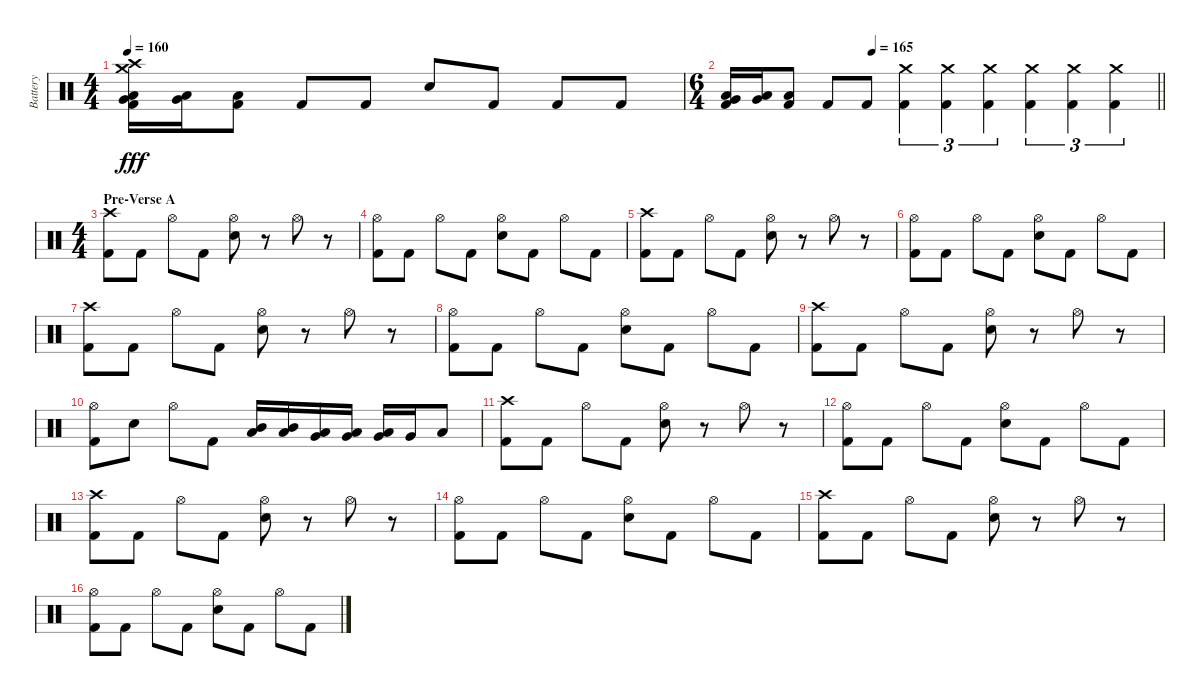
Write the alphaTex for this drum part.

\track ("Battery" "Battery") {instrument percussion}
\staff {score}
\articulation defaults
\ts (4 4)
\tempo 160
\clef neutral
\ks c
("Crash high (hit)" "Crash medium (hit)" "Low Tom (hit)" "Very Low Tom (hit)" "Kick (hit) 2").16{dy fff} ("Very Low Tom (hit)" "Low Floor Tom (hit)").16 ("Low Floor Tom (hit)" "Kick (hit) 2").8 "Kick (hit) 2".8 "Kick (hit) 2".8 "Snare (hit) 2".8 "Kick (hit) 2".8 "Kick (hit) 2".8 "Kick (hit) 2".8 |
\ts (6 4)
\tempo (165 0.3333333333333333)
\barLineRight lightlight
("Low Tom (hit)" "Very Low Tom (hit)" "Kick (hit) 2").16 ("Very Low Tom (hit)" "Low Floor Tom (hit)").16 ("Low Floor Tom (hit)" "Kick (hit) 2").8 "Kick (hit) 2".8 "Kick (hit) 2".8 ("Crash medium (hit)" "Kick (hit) 2").4{tu (3 2)} ("Crash medium (hit)" "Kick (hit) 2").4{tu (3 2)} ("Crash medium (hit)" "Kick (hit) 2").4{tu (3 2)} ("Crash medium (hit)" "Kick (hit) 2").4{tu (3 2)} ("Crash medium (hit)" "Kick (hit) 2").4{tu (3 2)} ("Crash medium (hit)" "Kick (hit) 2").4{tu (3 2)} |
\ts (4 4)
\section ("" "Pre-Verse A")
("Crash high (hit)" "Kick (hit) 2").8 "Kick (hit) 2".8 "Hi-Hat (open)".8 "Kick (hit) 2".8 ("Hi-Hat (open)" "Electric Snare (hit)").8 r.8 "Hi-Hat (open)".8 r.8 |
("Hi-Hat (open)" "Kick (hit) 2").8 "Kick (hit) 2".8 "Hi-Hat (open)".8 "Kick (hit) 2".8 ("Hi-Hat (open)" "Electric Snare (hit)").8 "Kick (hit) 2".8 "Hi-Hat (open)".8 "Kick (hit) 2".8 |
("Crash high (hit)" "Kick (hit) 2").8 "Kick (hit) 2".8 "Hi-Hat (open)".8 "Kick (hit) 2".8 ("Hi-Hat (open)" "Electric Snare (hit)").8 r.8 "Hi-Hat (open)".8 r.8 |
("Hi-Hat (open)" "Kick (hit) 2").8 "Kick (hit) 2".8 "Hi-Hat (open)".8 "Kick (hit) 2".8 ("Hi-Hat (open)" "Electric Snare (hit)").8 "Kick (hit) 2".8 "Hi-Hat (open)".8 "Kick (hit) 2".8 |
("Crash high (hit)" "Kick (hit) 2").8 "Kick (hit) 2".8 "Hi-Hat (open)".8 "Kick (hit) 2".8 ("Hi-Hat (open)" "Electric Snare (hit)").8 r.8 "Hi-Hat (open)".8 r.8 |
("Hi-Hat (open)" "Kick (hit) 2").8 "Kick (hit) 2".8 "Hi-Hat (open)".8 "Kick (hit) 2".8 ("Hi-Hat (open)" "Electric Snare (hit)").8 "Kick (hit) 2".8 "Hi-Hat (open)".8 "Kick (hit) 2".8 |
("Crash high (hit)" "Kick (hit) 2").8 "Kick (hit) 2".8 "Hi-Hat (open)".8 "Kick (hit) 2".8 ("Hi-Hat (open)" "Electric Snare (hit)").8 r.8 "Hi-Hat (open)".8 r.8 |
("Hi-Hat (open)" "Kick (hit) 2").8 "Electric Snare (hit)".8 "Hi-Hat (open)".8 "Kick (hit) 2".8 ("Mid Tom (hit)" "Low Tom (hit)").16 ("Mid Tom (hit)" "Low Tom (hit)").16 ("Low Tom (hit)" "Very Low Tom (hit)").16 ("Low Tom (hit)" "Very Low Tom (hit)").16 ("Very Low Tom (hit)" "Low Floor Tom (hit)").16 "Very Low Tom (hit)".16 "Low Floor Tom (hit)".8 |
("Crash high (hit)" "Kick (hit) 2").8 "Kick (hit) 2".8 "Hi-Hat (open)".8 "Kick (hit) 2".8 ("Hi-Hat (open)" "Electric Snare (hit)").8 r.8 "Hi-Hat (open)".8 r.8 |
("Hi-Hat (open)" "Kick (hit) 2").8 "Kick (hit) 2".8 "Hi-Hat (open)".8 "Kick (hit) 2".8 ("Hi-Hat (open)" "Electric Snare (hit)").8 "Kick (hit) 2".8 "Hi-Hat (open)".8 "Kick (hit) 2".8 |
("Crash high (hit)" "Kick (hit) 2").8 "Kick (hit) 2".8 "Hi-Hat (open)".8 "Kick (hit) 2".8 ("Hi-Hat (open)" "Electric Snare (hit)").8 r.8 "Hi-Hat (open)".8 r.8 |
("Hi-Hat (open)" "Kick (hit) 2").8 "Kick (hit) 2".8 "Hi-Hat (open)".8 "Kick (hit) 2".8 ("Hi-Hat (open)" "Electric Snare (hit)").8 "Kick (hit) 2".8 "Hi-Hat (open)".8 "Kick (hit) 2".8 |
("Crash high (hit)" "Kick (hit) 2").8 "Kick (hit) 2".8 "Hi-Hat (open)".8 "Kick (hit) 2".8 ("Hi-Hat (open)" "Electric Snare (hit)").8 r.8 "Hi-Hat (open)".8 r.8 |
("Hi-Hat (open)" "Kick (hit) 2").8 "Kick (hit) 2".8 "Hi-Hat (open)".8 "Kick (hit) 2".8 ("Hi-Hat (open)" "Electric Snare (hit)").8 "Kick (hit) 2".8 "Hi-Hat (open)".8 "Kick (hit) 2".8
